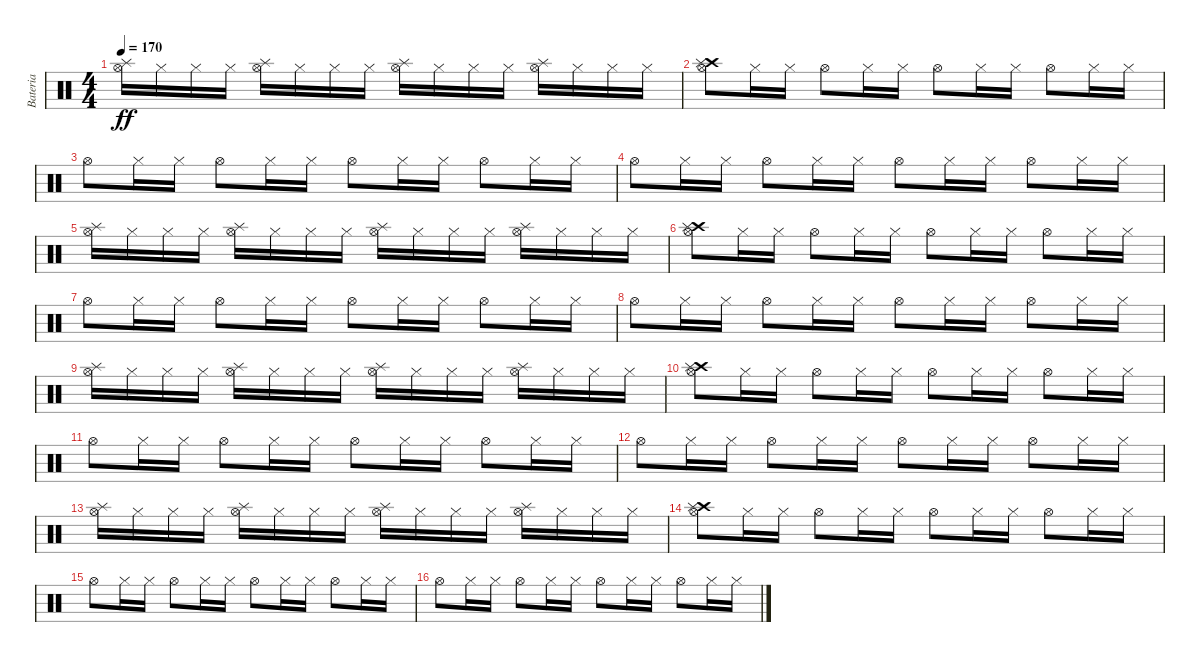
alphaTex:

\track ("Bateria" "Bateria") {instrument percussion}
\staff {score}
\articulation defaults
\ts (4 4)
\tempo 170
\clef neutral
\ks c
("Hi-Hat (open)" "Splash (hit)").16{dy ff} "Hi-Hat (closed)".16 "Hi-Hat (closed)".16 "Hi-Hat (closed)".16 ("Hi-Hat (open)" "Splash (hit)").16 "Hi-Hat (closed)".16 "Hi-Hat (closed)".16 "Hi-Hat (closed)".16 ("Hi-Hat (open)" "Splash (hit)").16 "Hi-Hat (closed)".16 "Hi-Hat (closed)".16 "Hi-Hat (closed)".16 ("Hi-Hat (open)" "Splash (hit)").16 "Hi-Hat (closed)".16 "Hi-Hat (closed)".16 "Hi-Hat (closed)".16 |
("Hi-Hat (open)" "Crash high (hit)" "Splash (hit)").8 "Hi-Hat (closed)".16 "Hi-Hat (closed)".16 "Hi-Hat (open)".8 "Hi-Hat (closed)".16 "Hi-Hat (closed)".16 "Hi-Hat (open)".8 "Hi-Hat (closed)".16 "Hi-Hat (closed)".16 "Hi-Hat (open)".8 "Hi-Hat (closed)".16 "Hi-Hat (closed)".16 |
"Hi-Hat (open)".8 "Hi-Hat (closed)".16 "Hi-Hat (closed)".16 "Hi-Hat (open)".8 "Hi-Hat (closed)".16 "Hi-Hat (closed)".16 "Hi-Hat (open)".8 "Hi-Hat (closed)".16 "Hi-Hat (closed)".16 "Hi-Hat (open)".8 "Hi-Hat (closed)".16 "Hi-Hat (closed)".16 |
"Hi-Hat (open)".8 "Hi-Hat (closed)".16 "Hi-Hat (closed)".16 "Hi-Hat (open)".8 "Hi-Hat (closed)".16 "Hi-Hat (closed)".16 "Hi-Hat (open)".8 "Hi-Hat (closed)".16 "Hi-Hat (closed)".16 "Hi-Hat (open)".8 "Hi-Hat (closed)".16 "Hi-Hat (closed)".16 |
("Hi-Hat (open)" "Splash (hit)").16 "Hi-Hat (closed)".16 "Hi-Hat (closed)".16 "Hi-Hat (closed)".16 ("Hi-Hat (open)" "Splash (hit)").16 "Hi-Hat (closed)".16 "Hi-Hat (closed)".16 "Hi-Hat (closed)".16 ("Hi-Hat (open)" "Splash (hit)").16 "Hi-Hat (closed)".16 "Hi-Hat (closed)".16 "Hi-Hat (closed)".16 ("Hi-Hat (open)" "Splash (hit)").16 "Hi-Hat (closed)".16 "Hi-Hat (closed)".16 "Hi-Hat (closed)".16 |
("Hi-Hat (open)" "Crash high (hit)" "Splash (hit)").8 "Hi-Hat (closed)".16 "Hi-Hat (closed)".16 "Hi-Hat (open)".8 "Hi-Hat (closed)".16 "Hi-Hat (closed)".16 "Hi-Hat (open)".8 "Hi-Hat (closed)".16 "Hi-Hat (closed)".16 "Hi-Hat (open)".8 "Hi-Hat (closed)".16 "Hi-Hat (closed)".16 |
"Hi-Hat (open)".8 "Hi-Hat (closed)".16 "Hi-Hat (closed)".16 "Hi-Hat (open)".8 "Hi-Hat (closed)".16 "Hi-Hat (closed)".16 "Hi-Hat (open)".8 "Hi-Hat (closed)".16 "Hi-Hat (closed)".16 "Hi-Hat (open)".8 "Hi-Hat (closed)".16 "Hi-Hat (closed)".16 |
"Hi-Hat (open)".8 "Hi-Hat (closed)".16 "Hi-Hat (closed)".16 "Hi-Hat (open)".8 "Hi-Hat (closed)".16 "Hi-Hat (closed)".16 "Hi-Hat (open)".8 "Hi-Hat (closed)".16 "Hi-Hat (closed)".16 "Hi-Hat (open)".8 "Hi-Hat (closed)".16 "Hi-Hat (closed)".16 |
("Hi-Hat (open)" "Splash (hit)").16 "Hi-Hat (closed)".16 "Hi-Hat (closed)".16 "Hi-Hat (closed)".16 ("Hi-Hat (open)" "Splash (hit)").16 "Hi-Hat (closed)".16 "Hi-Hat (closed)".16 "Hi-Hat (closed)".16 ("Hi-Hat (open)" "Splash (hit)").16 "Hi-Hat (closed)".16 "Hi-Hat (closed)".16 "Hi-Hat (closed)".16 ("Hi-Hat (open)" "Splash (hit)").16 "Hi-Hat (closed)".16 "Hi-Hat (closed)".16 "Hi-Hat (closed)".16 |
("Hi-Hat (open)" "Crash high (hit)" "Splash (hit)").8 "Hi-Hat (closed)".16 "Hi-Hat (closed)".16 "Hi-Hat (open)".8 "Hi-Hat (closed)".16 "Hi-Hat (closed)".16 "Hi-Hat (open)".8 "Hi-Hat (closed)".16 "Hi-Hat (closed)".16 "Hi-Hat (open)".8 "Hi-Hat (closed)".16 "Hi-Hat (closed)".16 |
"Hi-Hat (open)".8 "Hi-Hat (closed)".16 "Hi-Hat (closed)".16 "Hi-Hat (open)".8 "Hi-Hat (closed)".16 "Hi-Hat (closed)".16 "Hi-Hat (open)".8 "Hi-Hat (closed)".16 "Hi-Hat (closed)".16 "Hi-Hat (open)".8 "Hi-Hat (closed)".16 "Hi-Hat (closed)".16 |
"Hi-Hat (open)".8 "Hi-Hat (closed)".16 "Hi-Hat (closed)".16 "Hi-Hat (open)".8 "Hi-Hat (closed)".16 "Hi-Hat (closed)".16 "Hi-Hat (open)".8 "Hi-Hat (closed)".16 "Hi-Hat (closed)".16 "Hi-Hat (open)".8 "Hi-Hat (closed)".16 "Hi-Hat (closed)".16 |
("Hi-Hat (open)" "Splash (hit)").16 "Hi-Hat (closed)".16 "Hi-Hat (closed)".16 "Hi-Hat (closed)".16 ("Hi-Hat (open)" "Splash (hit)").16 "Hi-Hat (closed)".16 "Hi-Hat (closed)".16 "Hi-Hat (closed)".16 ("Hi-Hat (open)" "Splash (hit)").16 "Hi-Hat (closed)".16 "Hi-Hat (closed)".16 "Hi-Hat (closed)".16 ("Hi-Hat (open)" "Splash (hit)").16 "Hi-Hat (closed)".16 "Hi-Hat (closed)".16 "Hi-Hat (closed)".16 |
("Hi-Hat (open)" "Crash high (hit)" "Splash (hit)").8 "Hi-Hat (closed)".16 "Hi-Hat (closed)".16 "Hi-Hat (open)".8 "Hi-Hat (closed)".16 "Hi-Hat (closed)".16 "Hi-Hat (open)".8 "Hi-Hat (closed)".16 "Hi-Hat (closed)".16 "Hi-Hat (open)".8 "Hi-Hat (closed)".16 "Hi-Hat (closed)".16 |
"Hi-Hat (open)".8 "Hi-Hat (closed)".16 "Hi-Hat (closed)".16 "Hi-Hat (open)".8 "Hi-Hat (closed)".16 "Hi-Hat (closed)".16 "Hi-Hat (open)".8 "Hi-Hat (closed)".16 "Hi-Hat (closed)".16 "Hi-Hat (open)".8 "Hi-Hat (closed)".16 "Hi-Hat (closed)".16 |
"Hi-Hat (open)".8 "Hi-Hat (closed)".16 "Hi-Hat (closed)".16 "Hi-Hat (open)".8 "Hi-Hat (closed)".16 "Hi-Hat (closed)".16 "Hi-Hat (open)".8 "Hi-Hat (closed)".16 "Hi-Hat (closed)".16 "Hi-Hat (open)".8 "Hi-Hat (closed)".16 "Hi-Hat (closed)".16
